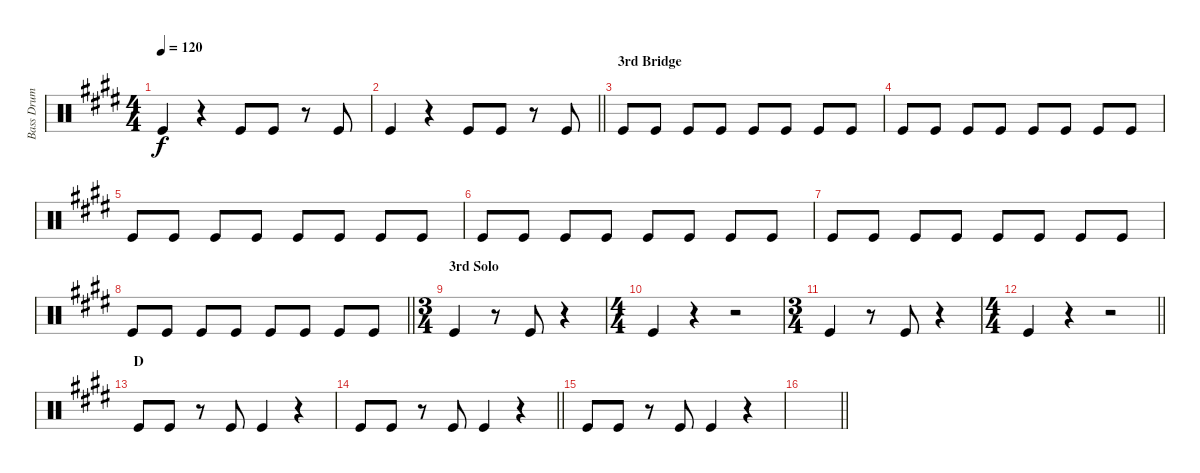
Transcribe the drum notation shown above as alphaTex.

\track ("Bass Drum" "Bass Drum") {instrument percussion}
\staff {score}
\articulation defaults
\ts (4 4)
\tempo 120
\clef neutral
\ks e "Kick (hit)".4{dy f}
r.4 "Kick (hit)".8 "Kick (hit)".8 r.8 "Kick (hit)".8 |
\barLineRight lightlight "Kick (hit)".4
r.4 "Kick (hit)".8 "Kick (hit)".8 r.8 "Kick (hit)".8 |
\section ("" "3rd Bridge")
"Kick (hit)".8 "Kick (hit)".8 "Kick (hit)".8 "Kick (hit)".8 "Kick (hit)".8 "Kick (hit)".8 "Kick (hit)".8 "Kick (hit)".8 |
"Kick (hit)".8 "Kick (hit)".8 "Kick (hit)".8 "Kick (hit)".8 "Kick (hit)".8 "Kick (hit)".8 "Kick (hit)".8 "Kick (hit)".8 |
"Kick (hit)".8 "Kick (hit)".8 "Kick (hit)".8 "Kick (hit)".8 "Kick (hit)".8 "Kick (hit)".8 "Kick (hit)".8 "Kick (hit)".8 |
"Kick (hit)".8 "Kick (hit)".8 "Kick (hit)".8 "Kick (hit)".8 "Kick (hit)".8 "Kick (hit)".8 "Kick (hit)".8 "Kick (hit)".8 |
"Kick (hit)".8 "Kick (hit)".8 "Kick (hit)".8 "Kick (hit)".8 "Kick (hit)".8 "Kick (hit)".8 "Kick (hit)".8 "Kick (hit)".8 |
\barLineRight lightlight "Kick (hit)".8 "Kick (hit)".8 "Kick (hit)".8 "Kick (hit)".8 "Kick (hit)".8 "Kick (hit)".8 "Kick (hit)".8 "Kick (hit)".8
|
\ts (3 4)
\section ("" "3rd Solo")
"Kick (hit)".4 r.8 "Kick (hit)".8 r.4 |
\ts (4 4)
"Kick (hit)".4 r.4 r.2 |
\ts (3 4)
"Kick (hit)".4 r.8 "Kick (hit)".8 r.4 |
\ts (4 4)
\barLineRight lightlight "Kick (hit)".4
r.4 r.2 |
\section ("" "D")
"Kick (hit)".8 "Kick (hit)".8 r.8 "Kick (hit)".8 "Kick (hit)".4 r.4 |
\barLineRight lightlight "Kick (hit)".8 "Kick (hit)".8
r.8 "Kick (hit)".8 "Kick (hit)".4 r.4 |
"Kick (hit)".8 "Kick (hit)".8 r.8 "Kick (hit)".8 "Kick (hit)".4 r.4 |
\barLineRight lightlight
